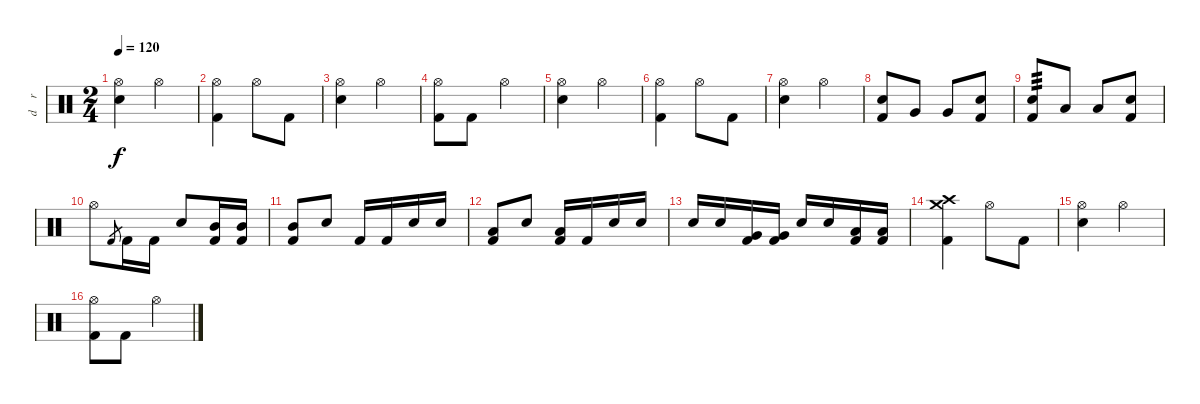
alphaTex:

\track ("d    r     u    m    s" "d    r    ") {instrument percussion}
\staff {score}
\articulation defaults
\ts (2 4)
\tempo 120
\clef neutral
\ks c
("Hi-Hat (open)" "Snare (hit) 2").4{dy f} "Hi-Hat (open)".4 |
("Hi-Hat (open)" "Kick (hit) 2").4 "Hi-Hat (open)".8 "Kick (hit) 2".8 |
("Hi-Hat (open)" "Snare (hit) 2").4 "Hi-Hat (open)".4 |
("Hi-Hat (open)" "Kick (hit) 2").8 "Kick (hit) 2".8 "Hi-Hat (open)".4 |
("Hi-Hat (open)" "Snare (hit) 2").4 "Hi-Hat (open)".4 |
("Hi-Hat (open)" "Kick (hit) 2").4 "Hi-Hat (open)".8 "Kick (hit) 2".8 |
("Hi-Hat (open)" "Snare (hit) 2").4 "Hi-Hat (open)".4 |
("Snare (hit) 2" "Kick (hit) 2").8 "Very Low Tom (hit)".8 "Very Low Tom (hit)".8 ("Snare (hit) 2" "Kick (hit) 2").8 |
("Snare (hit) 2" "Kick (hit) 2").8{tp 3} "Low Floor Tom (hit)".8 "Low Floor Tom (hit)".8 ("Snare (hit) 2" "Kick (hit) 2").8 |
"Hi-Hat (open)".8 "Kick (hit) 2".8{gr} "Kick (hit) 2".16 "Kick (hit) 2".16 "Snare (hit) 2".8 ("Mid Tom (hit)" "Kick (hit) 2").16 ("Mid Tom (hit)" "Kick (hit) 2").16 |
("Mid Tom (hit)" "Kick (hit) 2").8 "Snare (hit) 2".8 "Kick (hit) 2".16 "Kick (hit) 2".16 "Snare (hit) 2".16 "Snare (hit) 2".16 |
("Low Tom (hit)" "Kick (hit) 2").8 "Snare (hit) 2".8 ("Low Tom (hit)" "Kick (hit) 2").16 "Kick (hit) 2".16 "Snare (hit) 2".16 "Snare (hit) 2".16 |
"Snare (hit) 2".16 "Snare (hit) 2".16 ("Very Low Tom (hit)" "Kick (hit) 2").16 ("Very Low Tom (hit)" "Kick (hit) 2").16 "Snare (hit) 2".16 "Snare (hit) 2".16 ("Low Floor Tom (hit)" "Kick (hit) 2").16 ("Low Floor Tom (hit)" "Kick (hit) 2").16 |
("Crash high (hit)" "Crash medium (hit)" "Kick (hit) 2").4 "Hi-Hat (open)".8 "Kick (hit) 2".8 |
("Hi-Hat (open)" "Snare (hit) 2").4 "Hi-Hat (open)".4 |
("Hi-Hat (open)" "Kick (hit) 2").8 "Kick (hit) 2".8 "Hi-Hat (open)".4
